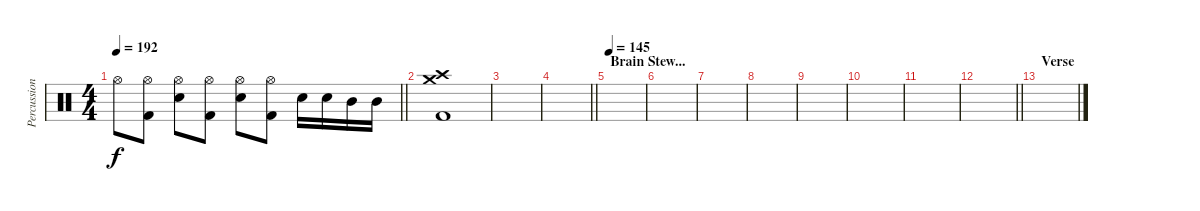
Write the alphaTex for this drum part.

\track ("Percussion" "Percussion") {instrument percussion}
\staff {score}
\articulation defaults
\ts (4 4)
\tempo 192
\clef neutral
\barLineRight lightlight
\ks c "Hi-Hat (open)".8{dy f}
("Hi-Hat (open)" "Kick (hit) 2").8 ("Hi-Hat (open)" "Electric Snare (hit)").8 ("Hi-Hat (open)" "Kick (hit) 2").8 ("Hi-Hat (open)" "Electric Snare (hit)").8 ("Hi-Hat (open)" "Kick (hit) 2").8 "Electric Snare (hit)".16 "Electric Snare (hit)".16 "Mid Tom (hit)".16 "Mid Tom (hit)".16 |
("Crash medium (hit)" "Crash high (hit)" "Kick (hit) 2").1 |
|
\barLineRight lightlight
|
\section ("" "Brain Stew...")
\tempo 162
\tempo 145
|
|
|
|
|
|
|
\barLineRight lightlight
|
\section ("" "Verse")
